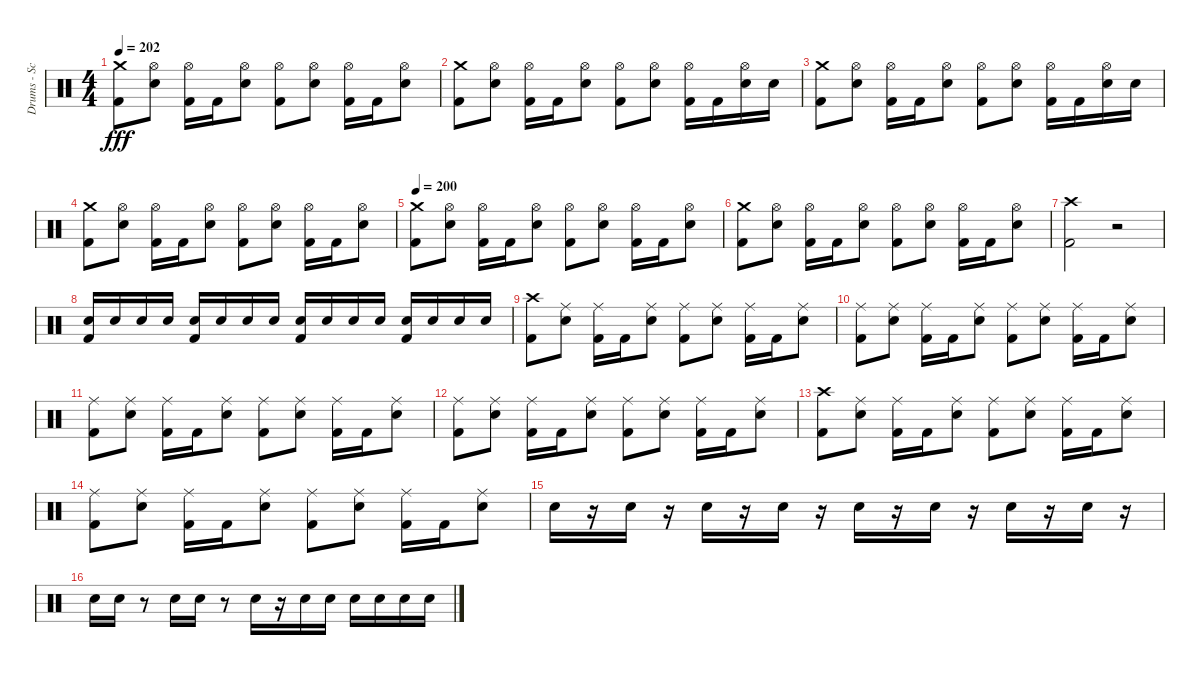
\track ("Drums - Scott" "Drums - Sc") {instrument percussion}
\staff {score}
\articulation defaults
\ts (4 4)
\tempo 202
\clef neutral
\ks c
("Kick (hit) 2" "Crash medium (hit)").8{dy fff} ("Hi-Hat (open)" "Electric Snare (hit)").8 ("Hi-Hat (open)" "Kick (hit) 2").16 "Kick (hit) 2".16 ("Hi-Hat (open)" "Electric Snare (hit)").8 ("Hi-Hat (open)" "Kick (hit) 2").8 ("Hi-Hat (open)" "Electric Snare (hit)").8 ("Hi-Hat (open)" "Kick (hit) 2").16 "Kick (hit) 2".16 ("Hi-Hat (open)" "Electric Snare (hit)").8 |
("Kick (hit) 2" "Crash medium (hit)").8 ("Hi-Hat (open)" "Electric Snare (hit)").8 ("Hi-Hat (open)" "Kick (hit) 2").16 "Kick (hit) 2".16 ("Hi-Hat (open)" "Electric Snare (hit)").8 ("Hi-Hat (open)" "Kick (hit) 2").8 ("Hi-Hat (open)" "Electric Snare (hit)").8 ("Hi-Hat (open)" "Kick (hit) 2").16 "Kick (hit) 2".16 ("Hi-Hat (open)" "Electric Snare (hit)").16 "Electric Snare (hit)".16 |
("Kick (hit) 2" "Crash medium (hit)").8 ("Hi-Hat (open)" "Electric Snare (hit)").8 ("Hi-Hat (open)" "Kick (hit) 2").16 "Kick (hit) 2".16 ("Hi-Hat (open)" "Electric Snare (hit)").8 ("Hi-Hat (open)" "Kick (hit) 2").8 ("Hi-Hat (open)" "Electric Snare (hit)").8 ("Hi-Hat (open)" "Kick (hit) 2").16 "Kick (hit) 2".16 ("Hi-Hat (open)" "Electric Snare (hit)").16 "Electric Snare (hit)".16 |
("Kick (hit) 2" "Crash medium (hit)").8 ("Hi-Hat (open)" "Electric Snare (hit)").8 ("Hi-Hat (open)" "Kick (hit) 2").16 "Kick (hit) 2".16 ("Hi-Hat (open)" "Electric Snare (hit)").8 ("Hi-Hat (open)" "Kick (hit) 2").8 ("Hi-Hat (open)" "Electric Snare (hit)").8 ("Hi-Hat (open)" "Kick (hit) 2").16 "Kick (hit) 2".16 ("Hi-Hat (open)" "Electric Snare (hit)").8 |
\tempo 200
("Kick (hit) 2" "Crash medium (hit)").8 ("Hi-Hat (open)" "Electric Snare (hit)").8 ("Hi-Hat (open)" "Kick (hit) 2").16 "Kick (hit) 2".16 ("Hi-Hat (open)" "Electric Snare (hit)").8 ("Hi-Hat (open)" "Kick (hit) 2").8 ("Hi-Hat (open)" "Electric Snare (hit)").8 ("Hi-Hat (open)" "Kick (hit) 2").16 "Kick (hit) 2".16 ("Hi-Hat (open)" "Electric Snare (hit)").8 |
("Kick (hit) 2" "Crash medium (hit)").8 ("Hi-Hat (open)" "Electric Snare (hit)").8 ("Hi-Hat (open)" "Kick (hit) 2").16 "Kick (hit) 2".16 ("Hi-Hat (open)" "Electric Snare (hit)").8 ("Hi-Hat (open)" "Kick (hit) 2").8 ("Hi-Hat (open)" "Electric Snare (hit)").8 ("Hi-Hat (open)" "Kick (hit) 2").16 "Kick (hit) 2".16 ("Hi-Hat (open)" "Electric Snare (hit)").8 |
("Kick (hit) 2" "Crash high (hit)").2 r.2 |
("Electric Snare (hit)" "Kick (hit) 2").16 "Electric Snare (hit)".16 "Electric Snare (hit)".16 "Electric Snare (hit)".16 ("Electric Snare (hit)" "Kick (hit) 2").16 "Electric Snare (hit)".16 "Electric Snare (hit)".16 "Electric Snare (hit)".16 ("Electric Snare (hit)" "Kick (hit) 2").16 "Electric Snare (hit)".16 "Electric Snare (hit)".16 "Electric Snare (hit)".16 ("Electric Snare (hit)" "Kick (hit) 2").16 "Electric Snare (hit)".16 "Electric Snare (hit)".16 "Electric Snare (hit)".16 |
("Crash high (hit)" "Kick (hit) 2").8 ("Ride (middle)" "Electric Snare (hit)").8 ("Ride (middle)" "Kick (hit) 2").16 "Kick (hit) 2".16 ("Ride (middle)" "Electric Snare (hit)").8 ("Ride (middle)" "Kick (hit) 2").8 ("Ride (middle)" "Electric Snare (hit)").8 ("Ride (middle)" "Kick (hit) 2").16 "Kick (hit) 2".16 ("Ride (middle)" "Electric Snare (hit)").8 |
("Kick (hit) 2" "Ride (middle)").8 ("Electric Snare (hit)" "Ride (middle)").8 ("Kick (hit) 2" "Ride (middle)").16 "Kick (hit) 2".16 ("Electric Snare (hit)" "Ride (middle)").8 ("Kick (hit) 2" "Ride (middle)").8 ("Electric Snare (hit)" "Ride (middle)").8 ("Kick (hit) 2" "Ride (middle)").16 "Kick (hit) 2".16 ("Electric Snare (hit)" "Ride (middle)").8 |
("Kick (hit) 2" "Ride (middle)").8 ("Electric Snare (hit)" "Ride (middle)").8 ("Kick (hit) 2" "Ride (middle)").16 "Kick (hit) 2".16 ("Electric Snare (hit)" "Ride (middle)").8 ("Kick (hit) 2" "Ride (middle)").8 ("Electric Snare (hit)" "Ride (middle)").8 ("Kick (hit) 2" "Ride (middle)").16 "Kick (hit) 2".16 ("Electric Snare (hit)" "Ride (middle)").8 |
("Kick (hit) 2" "Ride (middle)").8 ("Electric Snare (hit)" "Ride (middle)").8 ("Kick (hit) 2" "Ride (middle)").16 "Kick (hit) 2".16 ("Electric Snare (hit)" "Ride (middle)").8 ("Kick (hit) 2" "Ride (middle)").8 ("Electric Snare (hit)" "Ride (middle)").8 ("Kick (hit) 2" "Ride (middle)").16 "Kick (hit) 2".16 ("Electric Snare (hit)" "Ride (middle)").8 |
("Crash high (hit)" "Kick (hit) 2").8 ("Ride (middle)" "Electric Snare (hit)").8 ("Ride (middle)" "Kick (hit) 2").16 "Kick (hit) 2".16 ("Ride (middle)" "Electric Snare (hit)").8 ("Ride (middle)" "Kick (hit) 2").8 ("Ride (middle)" "Electric Snare (hit)").8 ("Ride (middle)" "Kick (hit) 2").16 "Kick (hit) 2".16 ("Ride (middle)" "Electric Snare (hit)").8 |
("Kick (hit) 2" "Ride (middle)").8 ("Electric Snare (hit)" "Ride (middle)").8 ("Kick (hit) 2" "Ride (middle)").16 "Kick (hit) 2".16 ("Electric Snare (hit)" "Ride (middle)").8 ("Kick (hit) 2" "Ride (middle)").8 ("Electric Snare (hit)" "Ride (middle)").8 ("Kick (hit) 2" "Ride (middle)").16 "Kick (hit) 2".16 ("Electric Snare (hit)" "Ride (middle)").8 |
"Electric Snare (hit)".16 r.16 "Electric Snare (hit)".16 r.16 "Electric Snare (hit)".16 r.16 "Electric Snare (hit)".16 r.16 "Electric Snare (hit)".16 r.16 "Electric Snare (hit)".16 r.16 "Electric Snare (hit)".16 r.16 "Electric Snare (hit)".16 r.16 |
"Electric Snare (hit)".16 "Electric Snare (hit)".16 r.8 "Electric Snare (hit)".16 "Electric Snare (hit)".16 r.8 "Electric Snare (hit)".16 r.16 "Electric Snare (hit)".16 "Electric Snare (hit)".16 "Electric Snare (hit)".16 "Electric Snare (hit)".16 "Electric Snare (hit)".16 "Electric Snare (hit)".16
